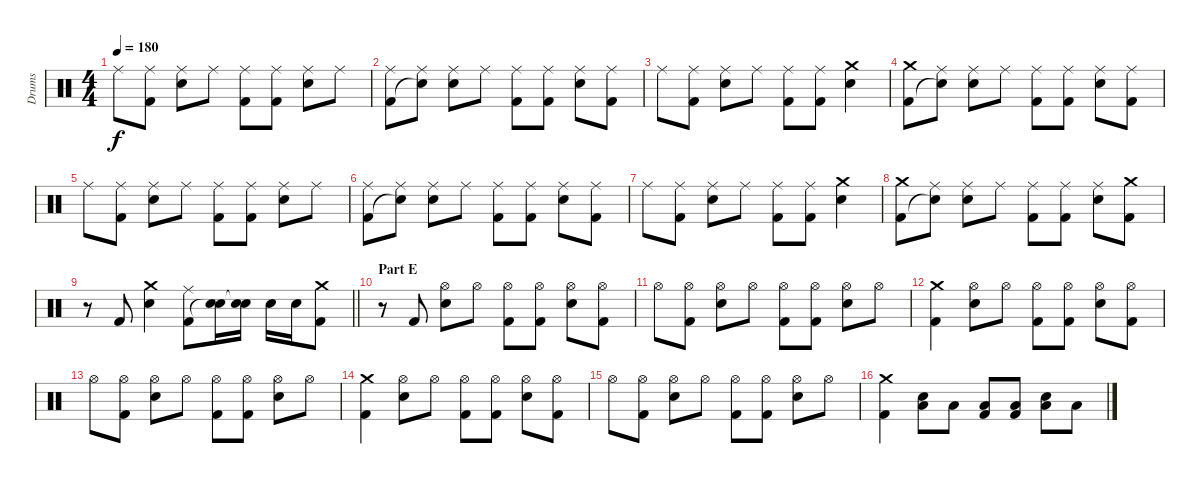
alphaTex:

\track ("Drums" "Drums") {instrument percussion}
\staff {score}
\articulation defaults
\ts (4 4)
\tempo 180
\clef neutral
\ks c "Ride (middle)".8{dy f}
("Ride (middle)" "Kick (hit) 2").8 ("Ride (middle)" "Electric Snare (hit)").8 "Ride (middle)".8 ("Ride (middle)" "Kick (hit) 2").8 ("Ride (middle)" "Kick (hit) 2").8 ("Ride (middle)" "Electric Snare (hit)").8 "Ride (middle)".8 |
("Ride (middle)" "Kick (hit) 2").8 ("Ride (middle)" "Snare (hit)"{t}).8 ("Ride (middle)" "Electric Snare (hit)").8 "Ride (middle)".8 ("Ride (middle)" "Kick (hit) 2").8 ("Ride (middle)" "Kick (hit) 2").8 ("Ride (middle)" "Electric Snare (hit)").8 ("Ride (middle)" "Kick (hit) 2").8 |
"Ride (middle)".8 ("Ride (middle)" "Kick (hit) 2").8 ("Ride (middle)" "Electric Snare (hit)").8 "Ride (middle)".8 ("Ride (middle)" "Kick (hit) 2").8 ("Ride (middle)" "Kick (hit) 2").8 ("Crash medium (hit)" "Electric Snare (hit)").4 |
("Crash medium (hit)" "Kick (hit) 2").8 ("Ride (middle)" "Snare (hit)"{t}).8 ("Ride (middle)" "Electric Snare (hit)").8 "Ride (middle)".8 ("Ride (middle)" "Kick (hit) 2").8 ("Ride (middle)" "Kick (hit) 2").8 ("Ride (middle)" "Electric Snare (hit)").8 ("Ride (middle)" "Kick (hit) 2").8 |
"Ride (middle)".8 ("Ride (middle)" "Kick (hit) 2").8 ("Ride (middle)" "Electric Snare (hit)").8 "Ride (middle)".8 ("Ride (middle)" "Kick (hit) 2").8 ("Ride (middle)" "Kick (hit) 2").8 ("Ride (middle)" "Electric Snare (hit)").8 "Ride (middle)".8 |
("Ride (middle)" "Kick (hit) 2").8 ("Ride (middle)" "Snare (hit)"{t}).8 ("Ride (middle)" "Electric Snare (hit)").8 "Ride (middle)".8 ("Ride (middle)" "Kick (hit) 2").8 ("Ride (middle)" "Kick (hit) 2").8 ("Ride (middle)" "Electric Snare (hit)").8 ("Ride (middle)" "Kick (hit) 2").8 |
"Ride (middle)".8 ("Ride (middle)" "Kick (hit) 2").8 ("Ride (middle)" "Electric Snare (hit)").8 "Ride (middle)".8 ("Ride (middle)" "Kick (hit) 2").8 ("Ride (middle)" "Kick (hit) 2").8 ("Crash medium (hit)" "Electric Snare (hit)").4 |
("Crash medium (hit)" "Kick (hit) 2").8 ("Ride (middle)" "Snare (hit)"{t}).8 ("Ride (middle)" "Electric Snare (hit)").8 "Ride (middle)".8 ("Ride (middle)" "Kick (hit) 2").8 ("Ride (middle)" "Kick (hit) 2").8 ("Ride (middle)" "Electric Snare (hit)").8 ("Crash medium (hit)" "Kick (hit) 2").8 |
\barLineRight lightlight
r.8 "Kick (hit) 2".8 ("Crash medium (hit)" "Electric Snare (hit)").4 ("Ride (middle)" "Kick (hit) 2").8 ("Electric Snare (hit)" "Snare (hit)"{t}).16 ("Electric Snare (hit)" "Snare (hit)"{t}).16 "Electric Snare (hit)".16 "Electric Snare (hit)".16 ("Crash medium (hit)" "Kick (hit) 2").8 |
\section ("" "Part E")
r.8 "Kick (hit) 2".8 ("Hi-Hat (open)" "Electric Snare (hit)").8 "Hi-Hat (open)".8 ("Hi-Hat (open)" "Kick (hit) 2").8 ("Hi-Hat (open)" "Kick (hit) 2").8 ("Hi-Hat (open)" "Electric Snare (hit)").8 ("Hi-Hat (open)" "Kick (hit) 2").8 |
"Hi-Hat (open)".8 ("Hi-Hat (open)" "Kick (hit) 2").8 ("Hi-Hat (open)" "Electric Snare (hit)").8 "Hi-Hat (open)".8 ("Hi-Hat (open)" "Kick (hit) 2").8 ("Hi-Hat (open)" "Kick (hit) 2").8 ("Hi-Hat (open)" "Electric Snare (hit)").8 "Hi-Hat (open)".8 |
("Crash medium (hit)" "Kick (hit) 2").4 ("Hi-Hat (open)" "Electric Snare (hit)").8 "Hi-Hat (open)".8 ("Hi-Hat (open)" "Kick (hit) 2").8 ("Hi-Hat (open)" "Kick (hit) 2").8 ("Hi-Hat (open)" "Electric Snare (hit)").8 ("Hi-Hat (open)" "Kick (hit) 2").8 |
"Hi-Hat (open)".8 ("Hi-Hat (open)" "Kick (hit) 2").8 ("Hi-Hat (open)" "Electric Snare (hit)").8 "Hi-Hat (open)".8 ("Hi-Hat (open)" "Kick (hit) 2").8 ("Hi-Hat (open)" "Kick (hit) 2").8 ("Hi-Hat (open)" "Electric Snare (hit)").8 "Hi-Hat (open)".8 |
("Crash medium (hit)" "Kick (hit) 2").4 ("Hi-Hat (open)" "Electric Snare (hit)").8 "Hi-Hat (open)".8 ("Hi-Hat (open)" "Kick (hit) 2").8 ("Hi-Hat (open)" "Kick (hit) 2").8 ("Hi-Hat (open)" "Electric Snare (hit)").8 ("Hi-Hat (open)" "Kick (hit) 2").8 |
"Hi-Hat (open)".8 ("Hi-Hat (open)" "Kick (hit) 2").8 ("Hi-Hat (open)" "Electric Snare (hit)").8 "Hi-Hat (open)".8 ("Hi-Hat (open)" "Kick (hit) 2").8 ("Hi-Hat (open)" "Kick (hit) 2").8 ("Hi-Hat (open)" "Electric Snare (hit)").8 "Hi-Hat (open)".8 |
("Crash medium (hit)" "Kick (hit) 2").4 ("Electric Snare (hit)" "Low Floor Tom (hit)").8 "Low Floor Tom (hit)".8 ("Low Floor Tom (hit)" "Kick (hit) 2").8 ("Low Floor Tom (hit)" "Kick (hit) 2").8 ("Electric Snare (hit)" "Low Floor Tom (hit)").8 "Low Floor Tom (hit)".8
